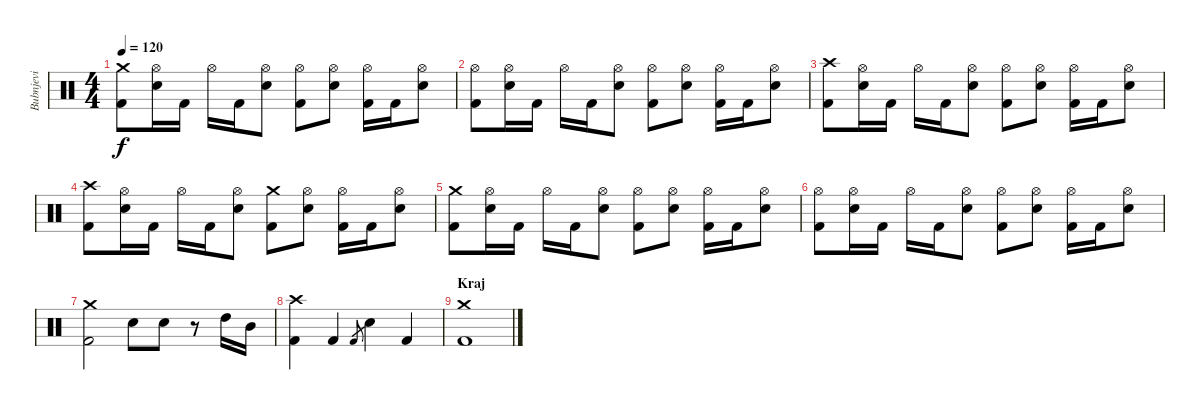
\track ("Bubnjevi" "Bubnjevi") {instrument percussion}
\staff {score}
\articulation defaults
\ts (4 4)
\tempo 120
\clef neutral
\ks c
("Crash medium (hit)" "Kick (hit) 2").8{dy f} ("Hi-Hat (open)" "Snare (hit) 2").16 "Kick (hit) 2".16 "Hi-Hat (open)".16 "Kick (hit) 2".16 ("Hi-Hat (open)" "Snare (hit) 2").8 ("Hi-Hat (open)" "Kick (hit) 2").8 ("Hi-Hat (open)" "Snare (hit) 2").8 ("Hi-Hat (open)" "Kick (hit) 2").16 "Kick (hit) 2".16 ("Hi-Hat (open)" "Snare (hit) 2").8 |
("Hi-Hat (open)" "Kick (hit) 2").8 ("Hi-Hat (open)" "Snare (hit) 2").16 "Kick (hit) 2".16 "Hi-Hat (open)".16 "Kick (hit) 2".16 ("Hi-Hat (open)" "Snare (hit) 2").8 ("Hi-Hat (open)" "Kick (hit) 2").8 ("Hi-Hat (open)" "Snare (hit) 2").8 ("Hi-Hat (open)" "Kick (hit) 2").16 "Kick (hit) 2".16 ("Hi-Hat (open)" "Snare (hit) 2").8 |
("Crash high (hit)" "Kick (hit) 2").8 ("Hi-Hat (open)" "Snare (hit) 2").16 "Kick (hit) 2".16 "Hi-Hat (open)".16 "Kick (hit) 2".16 ("Hi-Hat (open)" "Snare (hit) 2").8 ("Hi-Hat (open)" "Kick (hit) 2").8 ("Hi-Hat (open)" "Snare (hit) 2").8 ("Hi-Hat (open)" "Kick (hit) 2").16 "Kick (hit) 2".16 ("Hi-Hat (open)" "Snare (hit) 2").8 |
("Crash high (hit)" "Kick (hit) 2").8 ("Hi-Hat (open)" "Snare (hit) 2").16 "Kick (hit) 2".16 "Hi-Hat (open)".16 "Kick (hit) 2".16 ("Hi-Hat (open)" "Snare (hit) 2").8 ("Crash medium (hit)" "Kick (hit) 2").8 ("Hi-Hat (open)" "Snare (hit) 2").8 ("Hi-Hat (open)" "Kick (hit) 2").16 "Kick (hit) 2".16 ("Hi-Hat (open)" "Snare (hit) 2").8 |
("Crash medium (hit)" "Kick (hit) 2").8 ("Hi-Hat (open)" "Snare (hit) 2").16 "Kick (hit) 2".16 "Hi-Hat (open)".16 "Kick (hit) 2".16 ("Hi-Hat (open)" "Snare (hit) 2").8 ("Hi-Hat (open)" "Kick (hit) 2").8 ("Hi-Hat (open)" "Snare (hit) 2").8 ("Hi-Hat (open)" "Kick (hit) 2").16 "Kick (hit) 2".16 ("Hi-Hat (open)" "Snare (hit) 2").8 |
("Hi-Hat (open)" "Kick (hit) 2").8 ("Hi-Hat (open)" "Snare (hit) 2").16 "Kick (hit) 2".16 "Hi-Hat (open)".16 "Kick (hit) 2".16 ("Hi-Hat (open)" "Snare (hit) 2").8 ("Hi-Hat (open)" "Kick (hit) 2").8 ("Hi-Hat (open)" "Snare (hit) 2").8 ("Hi-Hat (open)" "Kick (hit) 2").16 "Kick (hit) 2".16 ("Hi-Hat (open)" "Snare (hit) 2").8 |
("Crash medium (hit)" "Kick (hit) 2").2 "Snare (hit) 2".8 "Snare (hit) 2".8 r.8 "High Tom (hit)".16 "Mid Tom (hit)".16 |
("Crash high (hit)" "Kick (hit) 2").4 "Kick (hit) 2".4 "Kick (hit) 2".8{gr} "Snare (hit) 2".4 "Kick (hit) 2".4 |
\section ("" "Kraj")
("Crash medium (hit)" "Kick (hit) 2").1
